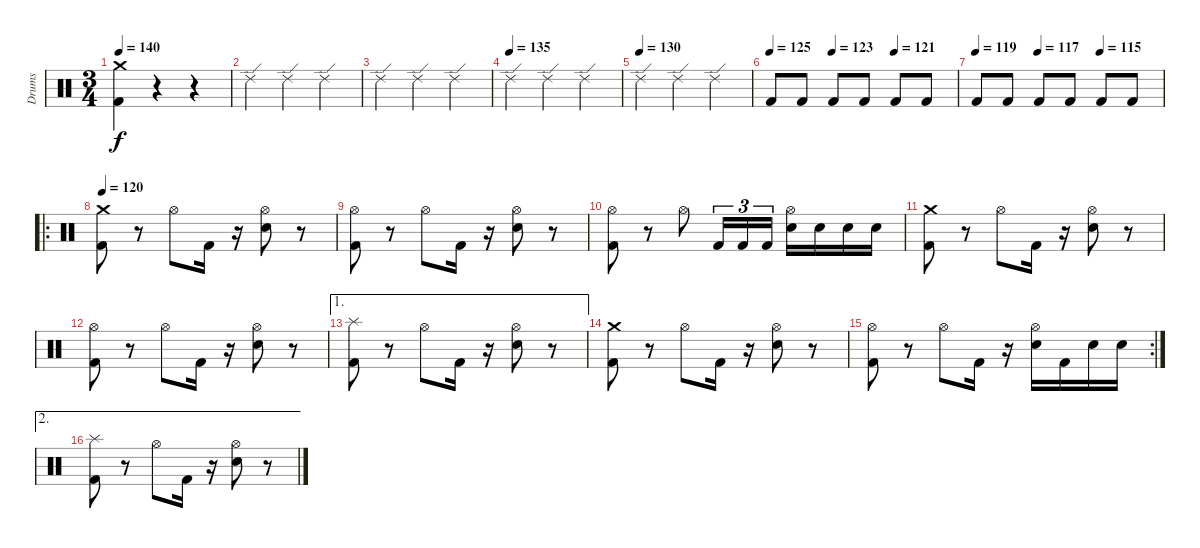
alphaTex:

\track ("Drums" "Drums") {instrument percussion}
\staff {score}
\articulation defaults
\ts (3 4)
\tempo 140
\clef neutral
\ks c
("Kick (hit) 2" "Crash medium (hit)").4{dy f} r.4 r.4 |
"Ride (edge) 2".4 "Ride (edge) 2".4 "Ride (edge) 2".4 |
"Ride (edge) 2".4 "Ride (edge) 2".4 "Ride (edge) 2".4 |
\tempo (135)
"Ride (edge) 2".4 "Ride (edge) 2".4 "Ride (edge) 2".4 |
\tempo (130)
"Ride (edge) 2".4 "Ride (edge) 2".4 "Ride (edge) 2".4 |
\tempo 125
\tempo (123 0.3333333333333333)
\tempo (121 0.6666666666666666)
"Kick (hit) 2".8 "Kick (hit) 2".8 "Kick (hit) 2".8 "Kick (hit) 2".8 "Kick (hit) 2".8 "Kick (hit) 2".8 |
\tempo 119
\tempo (117 0.3333333333333333)
\tempo (115 0.6666666666666666)
"Kick (hit) 2".8 "Kick (hit) 2".8 "Kick (hit) 2".8 "Kick (hit) 2".8 "Kick (hit) 2".8 "Kick (hit) 2".8 |
\ro
\tempo 110
\tempo 120
("Kick (hit) 2" "Crash medium (hit)").8 r.8 "Hi-Hat (open)".8 "Kick (hit) 2".16 r.16 ("Electric Snare (hit)" "Hi-Hat (open)").8 r.8 |
("Kick (hit) 2" "Hi-Hat (open)").8 r.8 "Hi-Hat (open)".8 "Kick (hit) 2".16 r.16 ("Electric Snare (hit)" "Hi-Hat (open)").8 r.8 |
("Kick (hit) 2" "Hi-Hat (open)").8 r.8 "Hi-Hat (open)".8 "Kick (hit) 2".16{tu (3 2)} "Kick (hit) 2".16{tu (3 2)} "Kick (hit) 2".16{tu (3 2)} ("Electric Snare (hit)" "Hi-Hat (open)").16 "Electric Snare (hit)".16 "Electric Snare (hit)".16 "Electric Snare (hit)".16 |
("Kick (hit) 2" "Crash medium (hit)").8 r.8 "Hi-Hat (open)".8 "Kick (hit) 2".16 r.16 ("Electric Snare (hit)" "Hi-Hat (open)").8 r.8 |
("Kick (hit) 2" "Hi-Hat (open)").8 r.8 "Hi-Hat (open)".8 "Kick (hit) 2".16 r.16 ("Electric Snare (hit)" "Hi-Hat (open)").8 r.8 |
\ae 1
("Kick (hit) 2" "Splash (hit)").8 r.8 "Hi-Hat (open)".8 "Kick (hit) 2".16 r.16 ("Electric Snare (hit)" "Hi-Hat (open)").8 r.8 |
("Kick (hit) 2" "Crash medium (hit)").8 r.8 "Hi-Hat (open)".8 "Kick (hit) 2".16 r.16 ("Electric Snare (hit)" "Hi-Hat (open)").8 r.8 |
\rc 2
("Kick (hit) 2" "Hi-Hat (open)").8 r.8 "Hi-Hat (open)".8 "Kick (hit) 2".16 r.16 ("Electric Snare (hit)" "Hi-Hat (open)").16 "Kick (hit) 2".16 "Electric Snare (hit)".16 "Electric Snare (hit)".16 |
\ae 2
("Kick (hit) 2" "Splash (hit)").8 r.8 "Hi-Hat (open)".8 "Kick (hit) 2".16 r.16 ("Electric Snare (hit)" "Hi-Hat (open)").8 r.8
